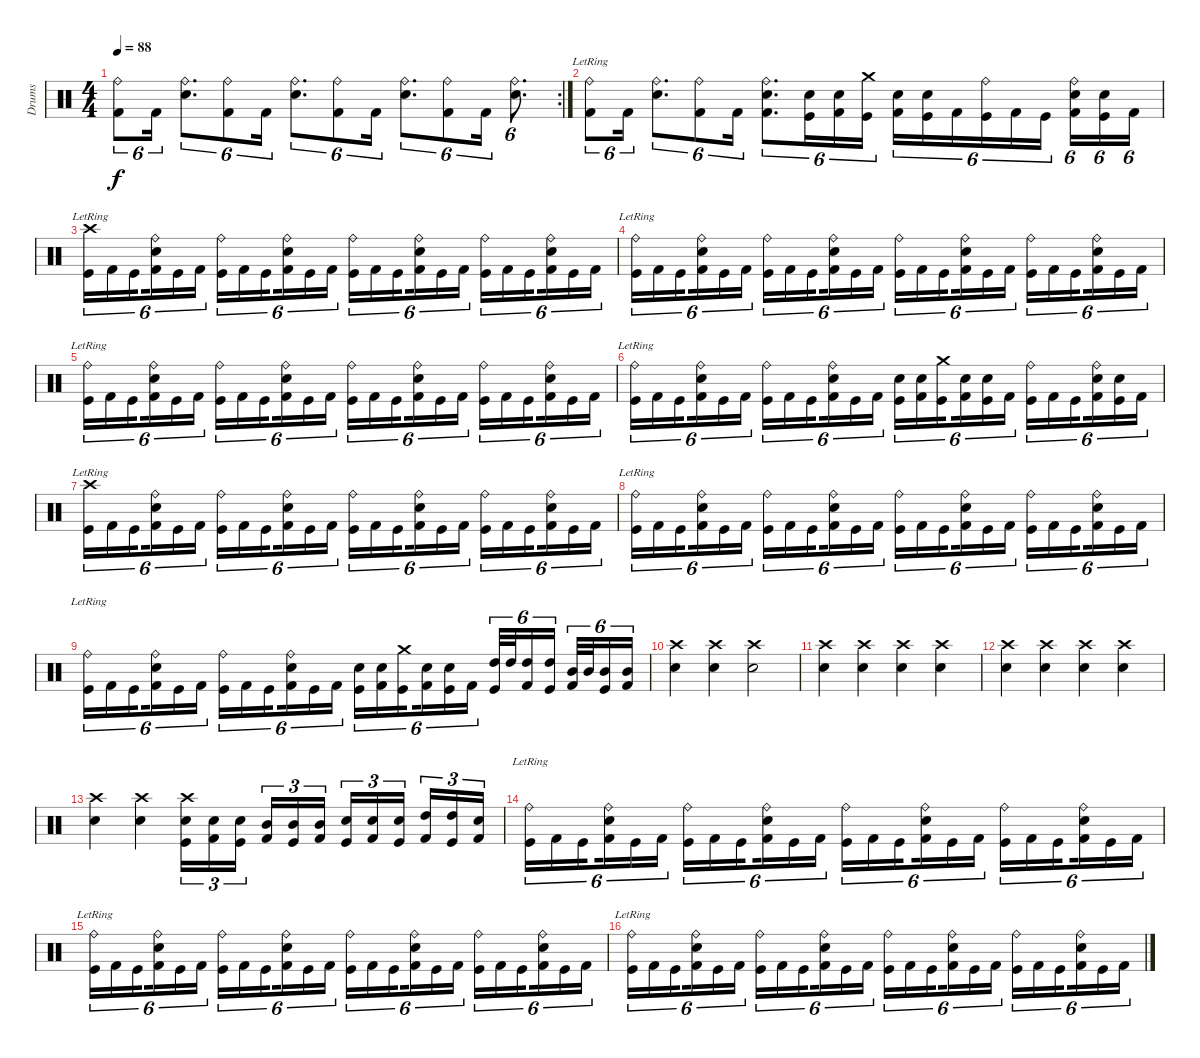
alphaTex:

\track ("Drums" "Drums") {instrument percussion}
\staff {score}
\articulation defaults
\rc 2
\ts (4 4)
\tempo 88
\clef neutral
\ks c
("Ride (bell)" "Kick (hit) 2").8{tu (6 4) dy f} "Kick (hit) 2".16{tu (6 4)} ("Ride (bell)" "Snare (hit) 2").8{d tu (6 4)} ("Ride (bell)" "Kick (hit) 2").8{tu (6 4)} "Kick (hit) 2".16{tu (6 4)} ("Ride (bell)" "Snare (hit) 2").8{d tu (6 4)} ("Ride (bell)" "Kick (hit) 2").8{tu (6 4)} "Kick (hit) 2".16{tu (6 4)} ("Ride (bell)" "Snare (hit) 2").8{d tu (6 4)} ("Ride (bell)" "Kick (hit) 2").8{tu (6 4)} "Kick (hit) 2".16{tu (6 4)} ("Ride (bell)" "Snare (hit) 2").8{d tu (6 4)} |
("Ride (bell)"{lr} "Kick (hit) 2").8{tu (6 4)} "Kick (hit) 2".16{tu (6 4)} ("Ride (bell)" "Snare (hit) 2").8{d tu (6 4)} ("Ride (bell)" "Kick (hit) 2").8{tu (6 4)} "Kick (hit) 2".16{tu (6 4)} ("Ride (bell)" "Snare (hit) 2" "Kick (hit) 2").8{d tu (6 4)} ("Snare (hit) 2" "Kick (hit)").16{tu (6 4)} ("Snare (hit) 2" "Kick (hit) 2").16{tu (6 4)} ("Crash medium (hit)" "Kick (hit)").16{tu (6 4) beam splitsecondary} ("Snare (hit) 2" "Kick (hit) 2").16{tu (6 4)} ("Snare (hit) 2" "Kick (hit)").16{tu (6 4)} "Kick (hit) 2".16{tu (6 4)} ("Ride (bell)" "Kick (hit)").16{tu (6 4)} "Kick (hit) 2".16{tu (6 4)} "Kick (hit)".16{tu (6 4) beam splitsecondary} ("Ride (bell)" "Snare (hit) 2" "Kick (hit) 2").16{tu (6 4)} ("Snare (hit) 2" "Kick (hit)").16{tu (6 4)} "Kick (hit) 2".16{tu (6 4)} |
("Crash high (hit)"{lr} "Kick (hit)").16{tu (6 4)} "Kick (hit) 2".16{tu (6 4)} "Kick (hit)".16{tu (6 4) beam splitsecondary} ("Ride (bell)" "Snare (hit) 2" "Kick (hit) 2").16{tu (6 4)} "Kick (hit)".16{tu (6 4)} "Kick (hit) 2".16{tu (6 4)} ("Ride (bell)" "Kick (hit)").16{tu (6 4)} "Kick (hit) 2".16{tu (6 4)} "Kick (hit)".16{tu (6 4) beam splitsecondary} ("Ride (bell)" "Snare (hit) 2" "Kick (hit) 2").16{tu (6 4)} "Kick (hit)".16{tu (6 4)} "Kick (hit) 2".16{tu (6 4)} ("Ride (bell)" "Kick (hit)").16{tu (6 4)} "Kick (hit) 2".16{tu (6 4)} "Kick (hit)".16{tu (6 4) beam splitsecondary} ("Ride (bell)" "Snare (hit) 2" "Kick (hit) 2").16{tu (6 4)} "Kick (hit)".16{tu (6 4)} "Kick (hit) 2".16{tu (6 4)} ("Ride (bell)" "Kick (hit)").16{tu (6 4)} "Kick (hit) 2".16{tu (6 4)} "Kick (hit)".16{tu (6 4) beam splitsecondary} ("Ride (bell)" "Snare (hit) 2" "Kick (hit) 2").16{tu (6 4)} "Kick (hit)".16{tu (6 4)} "Kick (hit) 2".16{tu (6 4)} |
("Ride (bell)"{lr} "Kick (hit)").16{tu (6 4)} "Kick (hit) 2".16{tu (6 4)} "Kick (hit)".16{tu (6 4) beam splitsecondary} ("Ride (bell)" "Snare (hit) 2" "Kick (hit) 2").16{tu (6 4)} "Kick (hit)".16{tu (6 4)} "Kick (hit) 2".16{tu (6 4)} ("Ride (bell)" "Kick (hit)").16{tu (6 4)} "Kick (hit) 2".16{tu (6 4)} "Kick (hit)".16{tu (6 4) beam splitsecondary} ("Ride (bell)" "Snare (hit) 2" "Kick (hit) 2").16{tu (6 4)} "Kick (hit)".16{tu (6 4)} "Kick (hit) 2".16{tu (6 4)} ("Ride (bell)" "Kick (hit)").16{tu (6 4)} "Kick (hit) 2".16{tu (6 4)} "Kick (hit)".16{tu (6 4) beam splitsecondary} ("Ride (bell)" "Snare (hit) 2" "Kick (hit) 2").16{tu (6 4)} "Kick (hit)".16{tu (6 4)} "Kick (hit) 2".16{tu (6 4)} ("Ride (bell)" "Kick (hit)").16{tu (6 4)} "Kick (hit) 2".16{tu (6 4)} "Kick (hit)".16{tu (6 4) beam splitsecondary} ("Ride (bell)" "Snare (hit) 2" "Kick (hit) 2").16{tu (6 4)} "Kick (hit)".16{tu (6 4)} "Kick (hit) 2".16{tu (6 4)} |
("Ride (bell)"{lr} "Kick (hit)").16{tu (6 4)} "Kick (hit) 2".16{tu (6 4)} "Kick (hit)".16{tu (6 4) beam splitsecondary} ("Ride (bell)" "Snare (hit) 2" "Kick (hit) 2").16{tu (6 4)} "Kick (hit)".16{tu (6 4)} "Kick (hit) 2".16{tu (6 4)} ("Ride (bell)" "Kick (hit)").16{tu (6 4)} "Kick (hit) 2".16{tu (6 4)} "Kick (hit)".16{tu (6 4) beam splitsecondary} ("Ride (bell)" "Snare (hit) 2" "Kick (hit) 2").16{tu (6 4)} "Kick (hit)".16{tu (6 4)} "Kick (hit) 2".16{tu (6 4)} ("Ride (bell)" "Kick (hit)").16{tu (6 4)} "Kick (hit) 2".16{tu (6 4)} "Kick (hit)".16{tu (6 4) beam splitsecondary} ("Ride (bell)" "Snare (hit) 2" "Kick (hit) 2").16{tu (6 4)} "Kick (hit)".16{tu (6 4)} "Kick (hit) 2".16{tu (6 4)} ("Ride (bell)" "Kick (hit)").16{tu (6 4)} "Kick (hit) 2".16{tu (6 4)} "Kick (hit)".16{tu (6 4) beam splitsecondary} ("Ride (bell)" "Snare (hit) 2" "Kick (hit) 2").16{tu (6 4)} "Kick (hit)".16{tu (6 4)} "Kick (hit) 2".16{tu (6 4)} |
("Ride (bell)"{lr} "Kick (hit)").16{tu (6 4)} "Kick (hit) 2".16{tu (6 4)} "Kick (hit)".16{tu (6 4) beam splitsecondary} ("Ride (bell)" "Snare (hit) 2" "Kick (hit) 2").16{tu (6 4)} "Kick (hit)".16{tu (6 4)} "Kick (hit) 2".16{tu (6 4)} ("Ride (bell)" "Kick (hit)").16{tu (6 4)} "Kick (hit) 2".16{tu (6 4)} "Kick (hit)".16{tu (6 4) beam splitsecondary} ("Ride (bell)" "Snare (hit) 2" "Kick (hit) 2").16{tu (6 4)} "Kick (hit)".16{tu (6 4)} "Kick (hit) 2".16{tu (6 4)} ("Snare (hit) 2" "Kick (hit)").16{tu (6 4)} ("Snare (hit) 2" "Kick (hit) 2").16{tu (6 4)} ("Crash medium (hit)" "Kick (hit)").16{tu (6 4) beam splitsecondary} ("Snare (hit) 2" "Kick (hit) 2").16{tu (6 4)} ("Snare (hit) 2" "Kick (hit)").16{tu (6 4)} "Kick (hit) 2".16{tu (6 4)} ("Ride (bell)" "Kick (hit)").16{tu (6 4)} "Kick (hit) 2".16{tu (6 4)} "Kick (hit)".16{tu (6 4) beam splitsecondary} ("Ride (bell)" "Snare (hit) 2" "Kick (hit) 2").16{tu (6 4)} ("Snare (hit) 2" "Kick (hit)").16{tu (6 4)} "Kick (hit) 2".16{tu (6 4)} |
("Crash high (hit)"{lr} "Kick (hit)").16{tu (6 4)} "Kick (hit) 2".16{tu (6 4)} "Kick (hit)".16{tu (6 4) beam splitsecondary} ("Ride (bell)" "Snare (hit) 2" "Kick (hit) 2").16{tu (6 4)} "Kick (hit)".16{tu (6 4)} "Kick (hit) 2".16{tu (6 4)} ("Ride (bell)" "Kick (hit)").16{tu (6 4)} "Kick (hit) 2".16{tu (6 4)} "Kick (hit)".16{tu (6 4) beam splitsecondary} ("Ride (bell)" "Snare (hit) 2" "Kick (hit) 2").16{tu (6 4)} "Kick (hit)".16{tu (6 4)} "Kick (hit) 2".16{tu (6 4)} ("Ride (bell)" "Kick (hit)").16{tu (6 4)} "Kick (hit) 2".16{tu (6 4)} "Kick (hit)".16{tu (6 4) beam splitsecondary} ("Ride (bell)" "Snare (hit) 2" "Kick (hit) 2").16{tu (6 4)} "Kick (hit)".16{tu (6 4)} "Kick (hit) 2".16{tu (6 4)} ("Ride (bell)" "Kick (hit)").16{tu (6 4)} "Kick (hit) 2".16{tu (6 4)} "Kick (hit)".16{tu (6 4) beam splitsecondary} ("Ride (bell)" "Snare (hit) 2" "Kick (hit) 2").16{tu (6 4)} "Kick (hit)".16{tu (6 4)} "Kick (hit) 2".16{tu (6 4)} |
("Ride (bell)"{lr} "Kick (hit)").16{tu (6 4)} "Kick (hit) 2".16{tu (6 4)} "Kick (hit)".16{tu (6 4) beam splitsecondary} ("Ride (bell)" "Snare (hit) 2" "Kick (hit) 2").16{tu (6 4)} "Kick (hit)".16{tu (6 4)} "Kick (hit) 2".16{tu (6 4)} ("Ride (bell)" "Kick (hit)").16{tu (6 4)} "Kick (hit) 2".16{tu (6 4)} "Kick (hit)".16{tu (6 4) beam splitsecondary} ("Ride (bell)" "Snare (hit) 2" "Kick (hit) 2").16{tu (6 4)} "Kick (hit)".16{tu (6 4)} "Kick (hit) 2".16{tu (6 4)} ("Ride (bell)" "Kick (hit)").16{tu (6 4)} "Kick (hit) 2".16{tu (6 4)} "Kick (hit)".16{tu (6 4) beam splitsecondary} ("Ride (bell)" "Snare (hit) 2" "Kick (hit) 2").16{tu (6 4)} "Kick (hit)".16{tu (6 4)} "Kick (hit) 2".16{tu (6 4)} ("Ride (bell)" "Kick (hit)").16{tu (6 4)} "Kick (hit) 2".16{tu (6 4)} "Kick (hit)".16{tu (6 4) beam splitsecondary} ("Ride (bell)" "Snare (hit) 2" "Kick (hit) 2").16{tu (6 4)} "Kick (hit)".16{tu (6 4)} "Kick (hit) 2".16{tu (6 4)} |
("Ride (bell)"{lr} "Kick (hit)").16{tu (6 4)} "Kick (hit) 2".16{tu (6 4)} "Kick (hit)".16{tu (6 4) beam splitsecondary} ("Ride (bell)" "Snare (hit) 2" "Kick (hit) 2").16{tu (6 4)} "Kick (hit)".16{tu (6 4)} "Kick (hit) 2".16{tu (6 4)} ("Ride (bell)" "Kick (hit)").16{tu (6 4)} "Kick (hit) 2".16{tu (6 4)} "Kick (hit)".16{tu (6 4) beam splitsecondary} ("Ride (bell)" "Snare (hit) 2" "Kick (hit) 2").16{tu (6 4)} "Kick (hit)".16{tu (6 4)} "Kick (hit) 2".16{tu (6 4)} ("Snare (hit) 2" "Kick (hit)").16{tu (6 4)} ("Snare (hit) 2" "Kick (hit) 2").16{tu (6 4)} ("Crash medium (hit)" "Kick (hit)").16{tu (6 4) beam splitsecondary} ("Snare (hit) 2" "Kick (hit) 2").16{tu (6 4)} ("Snare (hit) 2" "Kick (hit)").16{tu (6 4)} "Kick (hit) 2".16{tu (6 4)} ("High Tom (hit)" "Kick (hit)").32{tu (6 4)} "High Tom (hit)".32{tu (6 4)} ("High Tom (hit)" "Kick (hit) 2").16{tu (6 4)} ("High Tom (hit)" "Kick (hit)").16{tu (6 4) beam splitsecondary} ("Mid Tom (hit)" "Kick (hit) 2").32{tu (6 4)} "Mid Tom (hit)".32{tu (6 4)} ("Mid Tom (hit)" "Kick (hit)").16{tu (6 4)} ("Mid Tom (hit)" "Kick (hit) 2").16{tu (6 4)} |
("Crash high (hit)" "Snare (hit) 2").4 ("Crash high (hit)" "Snare (hit) 2").4 ("Crash high (hit)" "Snare (hit) 2").2 |
("Crash high (hit)" "Snare (hit) 2").4 ("Crash high (hit)" "Snare (hit) 2").4 ("Crash high (hit)" "Snare (hit) 2").4 ("Crash high (hit)" "Snare (hit) 2").4 |
("Crash high (hit)" "Snare (hit) 2").4 ("Crash high (hit)" "Snare (hit) 2").4 ("Crash high (hit)" "Snare (hit) 2").4 ("Crash high (hit)" "Snare (hit) 2").4 |
("Crash high (hit)" "Snare (hit) 2").4 ("Crash high (hit)" "Snare (hit) 2").4 ("Crash high (hit)" "Snare (hit) 2" "Kick (hit)").16{tu (3 2)} ("Snare (hit) 2" "Kick (hit) 2").16{tu (3 2)} ("Snare (hit) 2" "Kick (hit)").16{tu (3 2) beam splitsecondary} ("Mid Tom (hit)" "Kick (hit) 2").16{tu (3 2)} ("Mid Tom (hit)" "Kick (hit)").16{tu (3 2)} ("Mid Tom (hit)" "Kick (hit) 2").16{tu (3 2)} ("Snare (hit) 2" "Kick (hit)").16{tu (3 2)} ("Snare (hit) 2" "Kick (hit) 2").16{tu (3 2)} ("Snare (hit) 2" "Kick (hit)").16{tu (3 2) beam splitsecondary} ("High Tom (hit)" "Kick (hit) 2").16{tu (3 2)} ("High Tom (hit)" "Kick (hit)").16{tu (3 2)} ("Snare (hit) 2" "Kick (hit) 2").16{tu (3 2)} |
("Ride (bell)"{lr} "Kick (hit)").16{tu (6 4)} "Kick (hit) 2".16{tu (6 4)} "Kick (hit)".16{tu (6 4) beam splitsecondary} ("Ride (bell)" "Snare (hit) 2" "Kick (hit) 2").16{tu (6 4)} "Kick (hit)".16{tu (6 4)} "Kick (hit) 2".16{tu (6 4)} ("Ride (bell)" "Kick (hit)").16{tu (6 4)} "Kick (hit) 2".16{tu (6 4)} "Kick (hit)".16{tu (6 4) beam splitsecondary} ("Ride (bell)" "Snare (hit) 2" "Kick (hit) 2").16{tu (6 4)} "Kick (hit)".16{tu (6 4)} "Kick (hit) 2".16{tu (6 4)} ("Ride (bell)" "Kick (hit)").16{tu (6 4)} "Kick (hit) 2".16{tu (6 4)} "Kick (hit)".16{tu (6 4) beam splitsecondary} ("Ride (bell)" "Snare (hit) 2" "Kick (hit) 2").16{tu (6 4)} "Kick (hit)".16{tu (6 4)} "Kick (hit) 2".16{tu (6 4)} ("Ride (bell)" "Kick (hit)").16{tu (6 4)} "Kick (hit) 2".16{tu (6 4)} "Kick (hit)".16{tu (6 4) beam splitsecondary} ("Ride (bell)" "Snare (hit) 2" "Kick (hit) 2").16{tu (6 4)} "Kick (hit)".16{tu (6 4)} "Kick (hit) 2".16{tu (6 4)} |
("Ride (bell)"{lr} "Kick (hit)").16{tu (6 4)} "Kick (hit) 2".16{tu (6 4)} "Kick (hit)".16{tu (6 4) beam splitsecondary} ("Ride (bell)" "Snare (hit) 2" "Kick (hit) 2").16{tu (6 4)} "Kick (hit)".16{tu (6 4)} "Kick (hit) 2".16{tu (6 4)} ("Ride (bell)" "Kick (hit)").16{tu (6 4)} "Kick (hit) 2".16{tu (6 4)} "Kick (hit)".16{tu (6 4) beam splitsecondary} ("Ride (bell)" "Snare (hit) 2" "Kick (hit) 2").16{tu (6 4)} "Kick (hit)".16{tu (6 4)} "Kick (hit) 2".16{tu (6 4)} ("Ride (bell)" "Kick (hit)").16{tu (6 4)} "Kick (hit) 2".16{tu (6 4)} "Kick (hit)".16{tu (6 4) beam splitsecondary} ("Ride (bell)" "Snare (hit) 2" "Kick (hit) 2").16{tu (6 4)} "Kick (hit)".16{tu (6 4)} "Kick (hit) 2".16{tu (6 4)} ("Ride (bell)" "Kick (hit)").16{tu (6 4)} "Kick (hit) 2".16{tu (6 4)} "Kick (hit)".16{tu (6 4) beam splitsecondary} ("Ride (bell)" "Snare (hit) 2" "Kick (hit) 2").16{tu (6 4)} "Kick (hit)".16{tu (6 4)} "Kick (hit) 2".16{tu (6 4)} |
("Ride (bell)"{lr} "Kick (hit)").16{tu (6 4)} "Kick (hit) 2".16{tu (6 4)} "Kick (hit)".16{tu (6 4) beam splitsecondary} ("Ride (bell)" "Snare (hit) 2" "Kick (hit) 2").16{tu (6 4)} "Kick (hit)".16{tu (6 4)} "Kick (hit) 2".16{tu (6 4)} ("Ride (bell)" "Kick (hit)").16{tu (6 4)} "Kick (hit) 2".16{tu (6 4)} "Kick (hit)".16{tu (6 4) beam splitsecondary} ("Ride (bell)" "Snare (hit) 2" "Kick (hit) 2").16{tu (6 4)} "Kick (hit)".16{tu (6 4)} "Kick (hit) 2".16{tu (6 4)} ("Ride (bell)" "Kick (hit)").16{tu (6 4)} "Kick (hit) 2".16{tu (6 4)} "Kick (hit)".16{tu (6 4) beam splitsecondary} ("Ride (bell)" "Snare (hit) 2" "Kick (hit) 2").16{tu (6 4)} "Kick (hit)".16{tu (6 4)} "Kick (hit) 2".16{tu (6 4)} ("Ride (bell)" "Kick (hit)").16{tu (6 4)} "Kick (hit) 2".16{tu (6 4)} "Kick (hit)".16{tu (6 4) beam splitsecondary} ("Ride (bell)" "Snare (hit) 2" "Kick (hit) 2").16{tu (6 4)} "Kick (hit)".16{tu (6 4)} "Kick (hit) 2".16{tu (6 4)}
